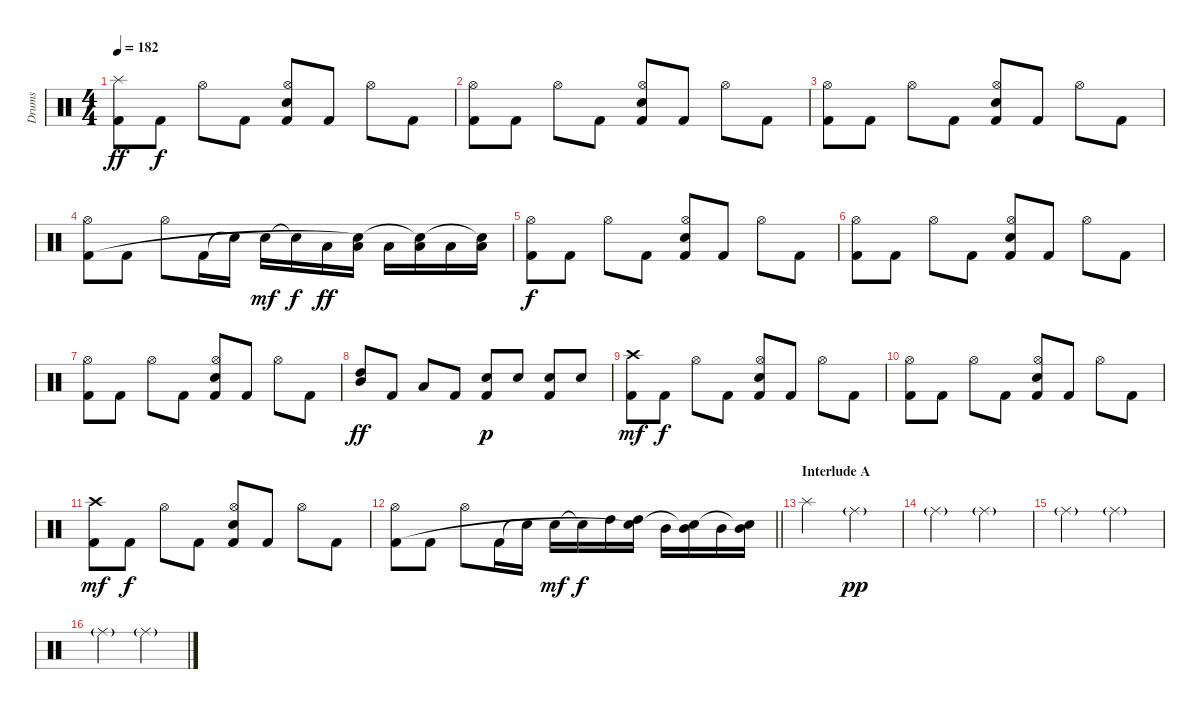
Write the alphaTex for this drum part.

\track ("Drums" "Drums") {instrument percussion}
\staff {score}
\articulation defaults
\ts (4 4)
\tempo 182
\clef neutral
\ks c
("Splash (hit)" "Kick (hit) 2").8{dy ff} "Kick (hit) 2".8{dy f} "Hi-Hat (open)".8 "Kick (hit) 2".8 ("Hi-Hat (open)" "Snare (hit) 2" "Kick (hit) 2").8 "Kick (hit) 2".8 "Hi-Hat (open)".8 "Kick (hit) 2".8 |
("Hi-Hat (open)" "Kick (hit) 2").8 "Kick (hit) 2".8 "Hi-Hat (open)".8 "Kick (hit) 2".8 ("Hi-Hat (open)" "Snare (hit) 2" "Kick (hit) 2").8 "Kick (hit) 2".8 "Hi-Hat (open)".8 "Kick (hit) 2".8 |
("Hi-Hat (open)" "Kick (hit) 2").8 "Kick (hit) 2".8 "Hi-Hat (open)".8 "Kick (hit) 2".8 ("Hi-Hat (open)" "Snare (hit) 2" "Kick (hit) 2").8 "Kick (hit) 2".8 "Hi-Hat (open)".8 "Kick (hit) 2".8 |
("Hi-Hat (open)" "Kick (hit) 2").8 "Kick (hit) 2".8 "Hi-Hat (open)".8 "Kick (hit) 2".16 "Snare (hit)"{t}.16 "Snare (hit) 2".16{dy mf} "Snare (hit)"{t}.16{dy f} "Low Floor Tom (hit)".16{dy ff} ("Low Floor Tom (hit)" "Snare (hit)"{t}).16 "Low Floor Tom (hit)".16 ("Low Floor Tom (hit)" "Snare (hit)"{t}).16 "Low Floor Tom (hit)".16 ("Low Floor Tom (hit)" "Snare (hit)"{t}).16 |
("Hi-Hat (open)" "Kick (hit) 2").8{dy f} "Kick (hit) 2".8 "Hi-Hat (open)".8 "Kick (hit) 2".8 ("Hi-Hat (open)" "Snare (hit) 2" "Kick (hit) 2").8 "Kick (hit) 2".8 "Hi-Hat (open)".8 "Kick (hit) 2".8 |
("Hi-Hat (open)" "Kick (hit) 2").8 "Kick (hit) 2".8 "Hi-Hat (open)".8 "Kick (hit) 2".8 ("Hi-Hat (open)" "Snare (hit) 2" "Kick (hit) 2").8 "Kick (hit) 2".8 "Hi-Hat (open)".8 "Kick (hit) 2".8 |
("Hi-Hat (open)" "Kick (hit) 2").8 "Kick (hit) 2".8 "Hi-Hat (open)".8 "Kick (hit) 2".8 ("Hi-Hat (open)" "Snare (hit) 2" "Kick (hit) 2").8 "Kick (hit) 2".8 "Hi-Hat (open)".8 "Kick (hit) 2".8 |
("Mid Tom (hit)" "High Tom (hit)").8{dy ff} "Kick (hit) 2".8 "Low Floor Tom (hit)".8 "Kick (hit) 2".8 ("Snare (hit) 2" "Kick (hit) 2").8{dy p} "Snare (hit) 2".8 ("Snare (hit) 2" "Kick (hit) 2").8 "Snare (hit) 2".8 |
("Crash high (hit)" "Kick (hit) 2").8{dy mf} "Kick (hit) 2".8{dy f} "Hi-Hat (open)".8 "Kick (hit) 2".8 ("Hi-Hat (open)" "Snare (hit) 2" "Kick (hit) 2").8 "Kick (hit) 2".8 "Hi-Hat (open)".8 "Kick (hit) 2".8 |
("Hi-Hat (open)" "Kick (hit) 2").8 "Kick (hit) 2".8 "Hi-Hat (open)".8 "Kick (hit) 2".8 ("Hi-Hat (open)" "Snare (hit) 2" "Kick (hit) 2").8 "Kick (hit) 2".8 "Hi-Hat (open)".8 "Kick (hit) 2".8 |
("Crash high (hit)" "Kick (hit) 2").8{dy mf} "Kick (hit) 2".8{dy f} "Hi-Hat (open)".8 "Kick (hit) 2".8 ("Hi-Hat (open)" "Snare (hit) 2" "Kick (hit) 2").8 "Kick (hit) 2".8 "Hi-Hat (open)".8 "Kick (hit) 2".8 |
\barLineRight lightlight
("Hi-Hat (open)" "Kick (hit) 2").8 "Kick (hit) 2".8 "Hi-Hat (open)".8 "Kick (hit) 2".16 "Snare (hit)"{t}.16 "Snare (hit) 2".16{dy mf} "Snare (hit)"{t}.16{dy f} "High Tom (hit)".16 ("High Tom (hit)" "Snare (hit)"{t}).16 "Mid Tom (hit)".16 ("Mid Tom (hit)" "Snare (hit)"{t}).16 "Mid Tom (hit)".16 ("Mid Tom (hit)" "Snare (hit)"{t}).16 |
\section ("" "Interlude A")
"Splash (hit)".2 "Ride (middle)"{g}.2{dy pp} |
"Ride (middle)"{g}.2 "Ride (middle)"{g}.2 |
"Ride (middle)"{g}.2 "Ride (middle)"{g}.2 |
"Ride (middle)"{g}.2 "Ride (middle)"{g}.2
